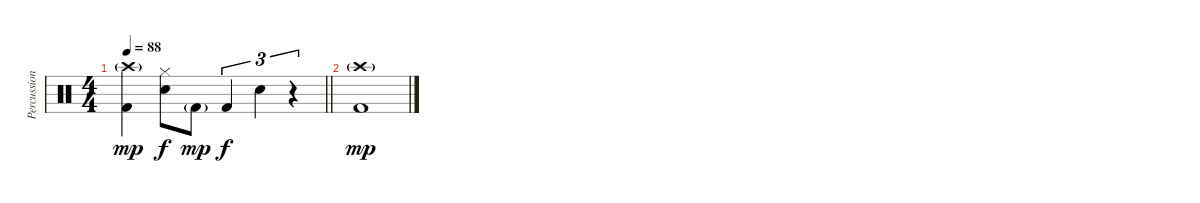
\track ("Percussion" "Percussion") {instrument percussion}
\staff {score}
\articulation defaults
\ts (4 4)
\tempo 88
\clef neutral
\barLineRight lightlight
\ks c
("Crash high (hit)"{g} "Kick (hit) 2").4{dy mp} ("Hi-Hat (closed)" "Snare (hit) 2").8{dy f} "Kick (hit) 2"{g}.8{dy mp} "Kick (hit) 2".4{tu (3 2) dy f} "Snare (hit) 2".4{tu (3 2)} r.4{tu (3 2)} |
("Crash high (hit)"{g} "Kick (hit) 2").1{dy mp}
